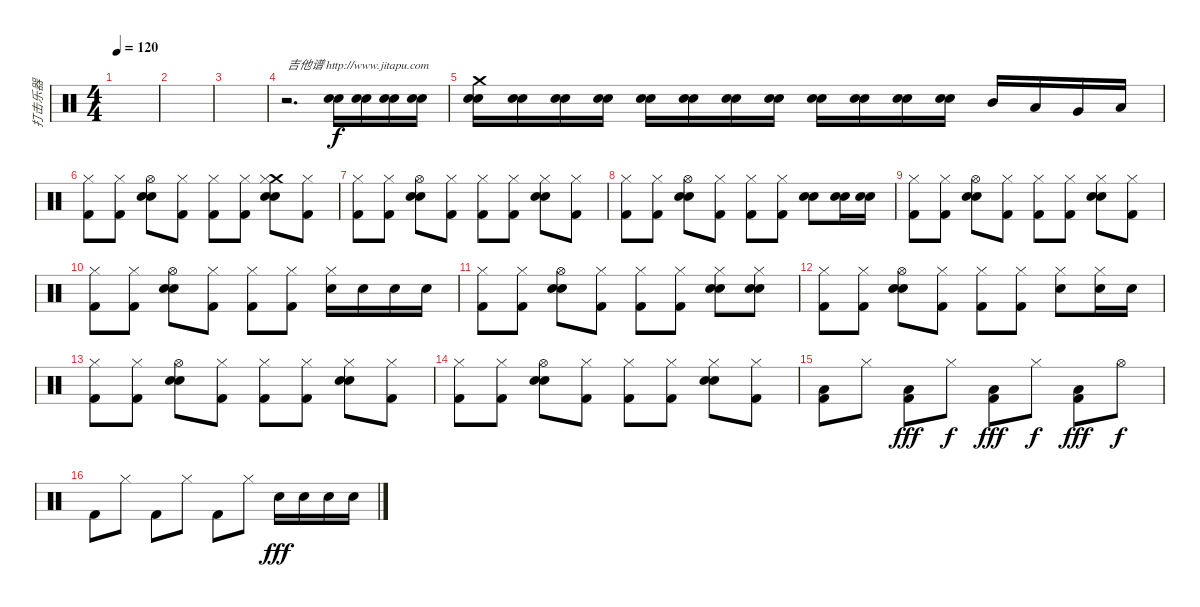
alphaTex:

\track ("打击乐器" "打击乐器") {instrument percussion}
\staff {score}
\articulation defaults
\ts (4 4)
\tempo 120
\clef neutral
\ks c
|
|
|
r.2{d txt "吉他谱 http://www.jitapu.com"} ("Electric Snare (hit)" "Snare (hit) 2").16 ("Electric Snare (hit)" "Snare (hit) 2").16 ("Electric Snare (hit)" "Snare (hit) 2").16 ("Electric Snare (hit)" "Snare (hit) 2").16 |
("Crash medium (hit)" "Electric Snare (hit)" "Snare (hit) 2").16 ("Electric Snare (hit)" "Snare (hit) 2").16 ("Electric Snare (hit)" "Snare (hit) 2").16 ("Electric Snare (hit)" "Snare (hit) 2").16 ("Electric Snare (hit)" "Snare (hit) 2").16 ("Electric Snare (hit)" "Snare (hit) 2").16 ("Electric Snare (hit)" "Snare (hit) 2").16 ("Electric Snare (hit)" "Snare (hit) 2").16 ("Electric Snare (hit)" "Snare (hit) 2").16 ("Electric Snare (hit)" "Snare (hit) 2").16 ("Electric Snare (hit)" "Snare (hit) 2").16 ("Electric Snare (hit)" "Snare (hit) 2").16 "Mid Tom (hit)".16 "Low Tom (hit)".16 "Very Low Tom (hit)".16 "Low Floor Tom (hit)".16 |
("Kick (hit) 2" "Hi-Hat (closed)").8 ("Kick (hit) 2" "Hi-Hat (closed)").8 ("Snare (hit) 2" "Electric Snare (hit)" "Hi-Hat (open)").8 ("Kick (hit) 2" "Hi-Hat (closed)").8 ("Kick (hit) 2" "Hi-Hat (closed)").8 ("Kick (hit) 2" "Hi-Hat (closed)").8 ("Crash medium (hit)" "Snare (hit) 2" "Electric Snare (hit)" "Hi-Hat (closed)").8 ("Kick (hit) 2" "Hi-Hat (closed)").8 |
("Kick (hit) 2" "Hi-Hat (closed)").8 ("Kick (hit) 2" "Hi-Hat (closed)").8 ("Snare (hit) 2" "Electric Snare (hit)" "Hi-Hat (open)").8 ("Kick (hit) 2" "Hi-Hat (closed)").8 ("Kick (hit) 2" "Hi-Hat (closed)").8 ("Kick (hit) 2" "Hi-Hat (closed)").8 ("Snare (hit) 2" "Electric Snare (hit)" "Hi-Hat (closed)").8 ("Kick (hit) 2" "Hi-Hat (closed)").8 |
("Kick (hit) 2" "Hi-Hat (closed)").8 ("Kick (hit) 2" "Hi-Hat (closed)").8 ("Snare (hit) 2" "Electric Snare (hit)" "Hi-Hat (open)").8 ("Kick (hit) 2" "Hi-Hat (closed)").8 ("Kick (hit) 2" "Hi-Hat (closed)").8 ("Kick (hit) 2" "Hi-Hat (closed)").8 ("Snare (hit) 2" "Electric Snare (hit)").8 ("Snare (hit) 2" "Electric Snare (hit)").16 ("Snare (hit) 2" "Electric Snare (hit)").16 |
("Kick (hit) 2" "Hi-Hat (closed)").8 ("Kick (hit) 2" "Hi-Hat (closed)").8 ("Snare (hit) 2" "Electric Snare (hit)" "Hi-Hat (open)").8 ("Kick (hit) 2" "Hi-Hat (closed)").8 ("Kick (hit) 2" "Hi-Hat (closed)").8 ("Kick (hit) 2" "Hi-Hat (closed)").8 ("Snare (hit) 2" "Electric Snare (hit)" "Hi-Hat (closed)").8 ("Kick (hit) 2" "Hi-Hat (closed)").8 |
("Kick (hit) 2" "Hi-Hat (closed)").8 ("Kick (hit) 2" "Hi-Hat (closed)").8 ("Snare (hit) 2" "Electric Snare (hit)" "Hi-Hat (open)").8 ("Kick (hit) 2" "Hi-Hat (closed)").8 ("Kick (hit) 2" "Hi-Hat (closed)").8 ("Kick (hit) 2" "Hi-Hat (closed)").8 ("Snare (hit) 2" "Hi-Hat (closed)").16 "Snare (hit) 2".16 "Snare (hit) 2".16 "Snare (hit) 2".16 |
("Kick (hit) 2" "Hi-Hat (closed)").8 ("Kick (hit) 2" "Hi-Hat (closed)").8 ("Snare (hit) 2" "Electric Snare (hit)" "Hi-Hat (open)").8 ("Kick (hit) 2" "Hi-Hat (closed)").8 ("Kick (hit) 2" "Hi-Hat (closed)").8 ("Kick (hit) 2" "Hi-Hat (closed)").8 ("Snare (hit) 2" "Electric Snare (hit)" "Hi-Hat (closed)").8 ("Snare (hit) 2" "Electric Snare (hit)" "Hi-Hat (closed)").8 |
("Kick (hit) 2" "Hi-Hat (closed)").8 ("Kick (hit) 2" "Hi-Hat (closed)").8 ("Snare (hit) 2" "Electric Snare (hit)" "Hi-Hat (open)").8 ("Kick (hit) 2" "Hi-Hat (closed)").8 ("Kick (hit) 2" "Hi-Hat (closed)").8 ("Kick (hit) 2" "Hi-Hat (closed)").8 ("Snare (hit) 2" "Hi-Hat (closed)").8 ("Snare (hit) 2" "Hi-Hat (closed)").16 "Snare (hit) 2".16 |
("Kick (hit) 2" "Hi-Hat (closed)").8 ("Kick (hit) 2" "Hi-Hat (closed)").8 ("Snare (hit) 2" "Electric Snare (hit)" "Hi-Hat (open)").8 ("Kick (hit) 2" "Hi-Hat (closed)").8 ("Kick (hit) 2" "Hi-Hat (closed)").8 ("Kick (hit) 2" "Hi-Hat (closed)").8 ("Snare (hit) 2" "Electric Snare (hit)" "Hi-Hat (closed)").8 ("Kick (hit) 2" "Hi-Hat (closed)").8 |
("Kick (hit) 2" "Hi-Hat (closed)").8 ("Kick (hit) 2" "Hi-Hat (closed)").8 ("Snare (hit) 2" "Electric Snare (hit)" "Hi-Hat (open)").8 ("Kick (hit) 2" "Hi-Hat (closed)").8 ("Kick (hit) 2" "Hi-Hat (closed)").8 ("Kick (hit) 2" "Hi-Hat (closed)").8 ("Snare (hit) 2" "Electric Snare (hit)" "Hi-Hat (closed)").8 ("Kick (hit) 2" "Hi-Hat (closed)").8 |
("Kick (hit) 2" "Low Floor Tom (hit)").8 "Hi-Hat (closed)".8{dy f} ("Kick (hit) 2" "Low Floor Tom (hit)").8{dy fff} "Hi-Hat (closed)".8{dy f} ("Kick (hit) 2" "Low Floor Tom (hit)").8{dy fff} "Hi-Hat (closed)".8{dy f} ("Kick (hit) 2" "Low Floor Tom (hit)").8{dy fff} "Hi-Hat (open)".8{dy f} |
"Kick (hit) 2".8 "Hi-Hat (closed)".8 "Kick (hit) 2".8 "Hi-Hat (closed)".8 "Kick (hit) 2".8 "Hi-Hat (closed)".8 "Snare (hit) 2".16{dy fff} "Snare (hit) 2".16 "Snare (hit) 2".16 "Snare (hit) 2".16
